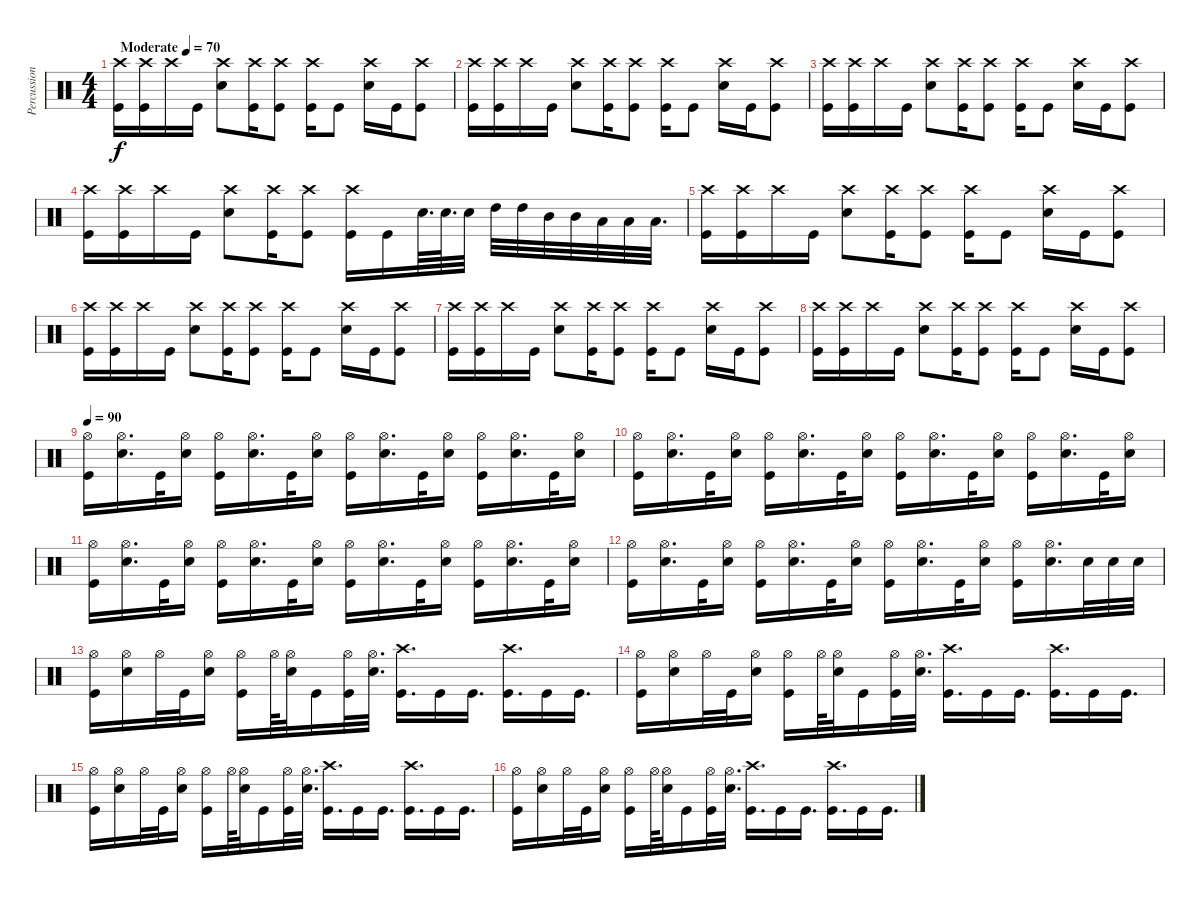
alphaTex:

\track ("Percussion" "Percussion") {instrument percussion}
\staff {score}
\articulation defaults
\ts (4 4)
\tempo (70 "Moderate")
\clef neutral
\ks c
("Crash high (hit)" "Kick (hit)").16{dy f} ("Crash high (hit)" "Kick (hit)").16 "Crash high (hit)".16 "Kick (hit)".16 ("Crash high (hit)" "Electric Snare (hit)").8 ("Crash high (hit)" "Kick (hit)").16 ("Crash high (hit)" "Kick (hit)").8 ("Crash high (hit)" "Kick (hit)").16 "Kick (hit)".8 ("Crash high (hit)" "Electric Snare (hit)").16 "Kick (hit)".16 ("Crash high (hit)" "Kick (hit)").8 |
("Crash high (hit)" "Kick (hit)").16 ("Crash high (hit)" "Kick (hit)").16 "Crash high (hit)".16 "Kick (hit)".16 ("Crash high (hit)" "Electric Snare (hit)").8 ("Crash high (hit)" "Kick (hit)").16 ("Crash high (hit)" "Kick (hit)").8 ("Crash high (hit)" "Kick (hit)").16 "Kick (hit)".8 ("Crash high (hit)" "Electric Snare (hit)").16 "Kick (hit)".16 ("Crash high (hit)" "Kick (hit)").8 |
("Crash high (hit)" "Kick (hit)").16 ("Crash high (hit)" "Kick (hit)").16 "Crash high (hit)".16 "Kick (hit)".16 ("Crash high (hit)" "Electric Snare (hit)").8 ("Crash high (hit)" "Kick (hit)").16 ("Crash high (hit)" "Kick (hit)").8 ("Crash high (hit)" "Kick (hit)").16 "Kick (hit)".8 ("Crash high (hit)" "Electric Snare (hit)").16 "Kick (hit)".16 ("Crash high (hit)" "Kick (hit)").8 |
("Crash high (hit)" "Kick (hit)").16 ("Crash high (hit)" "Kick (hit)").16 "Crash high (hit)".16 "Kick (hit)".16 ("Crash high (hit)" "Electric Snare (hit)").8 ("Crash high (hit)" "Kick (hit)").16 ("Crash high (hit)" "Kick (hit)").8 ("Crash high (hit)" "Kick (hit)").16 "Kick (hit)".16 "Electric Snare (hit)".64{d} "Electric Snare (hit)".64{d} "Electric Snare (hit)".32 "High Tom (hit)".32 "High Tom (hit)".32 "Mid Tom (hit)".32 "Mid Tom (hit)".32 "Low Tom (hit)".32 "Low Tom (hit)".32 "Low Tom (hit)".32{d} |
("Crash high (hit)" "Kick (hit)").16 ("Crash high (hit)" "Kick (hit)").16 "Crash high (hit)".16 "Kick (hit)".16 ("Crash high (hit)" "Electric Snare (hit)").8 ("Crash high (hit)" "Kick (hit)").16 ("Crash high (hit)" "Kick (hit)").8 ("Crash high (hit)" "Kick (hit)").16 "Kick (hit)".8 ("Crash high (hit)" "Electric Snare (hit)").16 "Kick (hit)".16 ("Crash high (hit)" "Kick (hit)").8 |
("Crash high (hit)" "Kick (hit)").16 ("Crash high (hit)" "Kick (hit)").16 "Crash high (hit)".16 "Kick (hit)".16 ("Crash high (hit)" "Electric Snare (hit)").8 ("Crash high (hit)" "Kick (hit)").16 ("Crash high (hit)" "Kick (hit)").8 ("Crash high (hit)" "Kick (hit)").16 "Kick (hit)".8 ("Crash high (hit)" "Electric Snare (hit)").16 "Kick (hit)".16 ("Crash high (hit)" "Kick (hit)").8 |
("Crash high (hit)" "Kick (hit)").16 ("Crash high (hit)" "Kick (hit)").16 "Crash high (hit)".16 "Kick (hit)".16 ("Crash high (hit)" "Electric Snare (hit)").8 ("Crash high (hit)" "Kick (hit)").16 ("Crash high (hit)" "Kick (hit)").8 ("Crash high (hit)" "Kick (hit)").16 "Kick (hit)".8 ("Crash high (hit)" "Electric Snare (hit)").16 "Kick (hit)".16 ("Crash high (hit)" "Kick (hit)").8 |
("Crash high (hit)" "Kick (hit)").16 ("Crash high (hit)" "Kick (hit)").16 "Crash high (hit)".16 "Kick (hit)".16 ("Crash high (hit)" "Electric Snare (hit)").8 ("Crash high (hit)" "Kick (hit)").16 ("Crash high (hit)" "Kick (hit)").8 ("Crash high (hit)" "Kick (hit)").16 "Kick (hit)".8 ("Crash high (hit)" "Electric Snare (hit)").16 "Kick (hit)".16 ("Crash high (hit)" "Kick (hit)").8 |
\tempo 90
("Hi-Hat (open)" "Kick (hit)").16 ("Hi-Hat (open)" "Electric Snare (hit)").16{d} "Kick (hit)".32 ("Hi-Hat (open)" "Electric Snare (hit)").16 ("Hi-Hat (open)" "Kick (hit)").16 ("Hi-Hat (open)" "Electric Snare (hit)").16{d} "Kick (hit)".32 ("Hi-Hat (open)" "Electric Snare (hit)").16 ("Hi-Hat (open)" "Kick (hit)").16 ("Hi-Hat (open)" "Electric Snare (hit)").16{d} "Kick (hit)".32 ("Hi-Hat (open)" "Electric Snare (hit)").16 ("Hi-Hat (open)" "Kick (hit)").16 ("Hi-Hat (open)" "Electric Snare (hit)").16{d} "Kick (hit)".32 ("Hi-Hat (open)" "Electric Snare (hit)").16 |
("Hi-Hat (open)" "Kick (hit)").16 ("Hi-Hat (open)" "Electric Snare (hit)").16{d} "Kick (hit)".32 ("Hi-Hat (open)" "Electric Snare (hit)").16 ("Hi-Hat (open)" "Kick (hit)").16 ("Hi-Hat (open)" "Electric Snare (hit)").16{d} "Kick (hit)".32 ("Hi-Hat (open)" "Electric Snare (hit)").16 ("Hi-Hat (open)" "Kick (hit)").16 ("Hi-Hat (open)" "Electric Snare (hit)").16{d} "Kick (hit)".32 ("Hi-Hat (open)" "Electric Snare (hit)").16 ("Hi-Hat (open)" "Kick (hit)").16 ("Hi-Hat (open)" "Electric Snare (hit)").16{d} "Kick (hit)".32 ("Hi-Hat (open)" "Electric Snare (hit)").16 |
("Hi-Hat (open)" "Kick (hit)").16 ("Hi-Hat (open)" "Electric Snare (hit)").16{d} "Kick (hit)".32 ("Hi-Hat (open)" "Electric Snare (hit)").16 ("Hi-Hat (open)" "Kick (hit)").16 ("Hi-Hat (open)" "Electric Snare (hit)").16{d} "Kick (hit)".32 ("Hi-Hat (open)" "Electric Snare (hit)").16 ("Hi-Hat (open)" "Kick (hit)").16 ("Hi-Hat (open)" "Electric Snare (hit)").16{d} "Kick (hit)".32 ("Hi-Hat (open)" "Electric Snare (hit)").16 ("Hi-Hat (open)" "Kick (hit)").16 ("Hi-Hat (open)" "Electric Snare (hit)").16{d} "Kick (hit)".32 ("Hi-Hat (open)" "Electric Snare (hit)").16 |
("Hi-Hat (open)" "Kick (hit)").16 ("Hi-Hat (open)" "Electric Snare (hit)").16{d} "Kick (hit)".32 ("Hi-Hat (open)" "Electric Snare (hit)").16 ("Hi-Hat (open)" "Kick (hit)").16 ("Hi-Hat (open)" "Electric Snare (hit)").16{d} "Kick (hit)".32 ("Hi-Hat (open)" "Electric Snare (hit)").16 ("Hi-Hat (open)" "Kick (hit)").16 ("Hi-Hat (open)" "Electric Snare (hit)").16{d} "Kick (hit)".32 ("Hi-Hat (open)" "Electric Snare (hit)").16 ("Hi-Hat (open)" "Kick (hit)").16 ("Hi-Hat (open)" "Electric Snare (hit)").16{d} "Electric Snare (hit)".32 "Electric Snare (hit)".32 "Electric Snare (hit)".32 |
("Hi-Hat (open)" "Kick (hit)").16 ("Hi-Hat (open)" "Electric Snare (hit)").16 "Hi-Hat (open)".32 "Kick (hit)".32 ("Hi-Hat (open)" "Electric Snare (hit)").16 ("Hi-Hat (open)" "Kick (hit)").16 "Hi-Hat (open)".64 ("Hi-Hat (open)" "Electric Snare (hit)").32 "Kick (hit)".16 ("Hi-Hat (open)" "Kick (hit)").32 ("Hi-Hat (open)" "Electric Snare (hit)").32{d} ("Crash high (hit)" "Kick (hit)").16{d} "Kick (hit)".16 "Kick (hit)".16{d} ("Crash high (hit)" "Kick (hit)").16{d} "Kick (hit)".16 "Kick (hit)".16{d} |
("Hi-Hat (open)" "Kick (hit)").16 ("Hi-Hat (open)" "Electric Snare (hit)").16 "Hi-Hat (open)".32 "Kick (hit)".32 ("Hi-Hat (open)" "Electric Snare (hit)").16 ("Hi-Hat (open)" "Kick (hit)").16 "Hi-Hat (open)".64 ("Hi-Hat (open)" "Electric Snare (hit)").32 "Kick (hit)".16 ("Hi-Hat (open)" "Kick (hit)").32 ("Hi-Hat (open)" "Electric Snare (hit)").32{d} ("Crash high (hit)" "Kick (hit)").16{d} "Kick (hit)".16 "Kick (hit)".16{d} ("Crash high (hit)" "Kick (hit)").16{d} "Kick (hit)".16 "Kick (hit)".16{d} |
("Hi-Hat (open)" "Kick (hit)").16 ("Hi-Hat (open)" "Electric Snare (hit)").16 "Hi-Hat (open)".32 "Kick (hit)".32 ("Hi-Hat (open)" "Electric Snare (hit)").16 ("Hi-Hat (open)" "Kick (hit)").16 "Hi-Hat (open)".64 ("Hi-Hat (open)" "Electric Snare (hit)").32 "Kick (hit)".16 ("Hi-Hat (open)" "Kick (hit)").32 ("Hi-Hat (open)" "Electric Snare (hit)").32{d} ("Crash high (hit)" "Kick (hit)").16{d} "Kick (hit)".16 "Kick (hit)".16{d} ("Crash high (hit)" "Kick (hit)").16{d} "Kick (hit)".16 "Kick (hit)".16{d} |
("Hi-Hat (open)" "Kick (hit)").16 ("Hi-Hat (open)" "Electric Snare (hit)").16 "Hi-Hat (open)".32 "Kick (hit)".32 ("Hi-Hat (open)" "Electric Snare (hit)").16 ("Hi-Hat (open)" "Kick (hit)").16 "Hi-Hat (open)".64 ("Hi-Hat (open)" "Electric Snare (hit)").32 "Kick (hit)".16 ("Hi-Hat (open)" "Kick (hit)").32 ("Hi-Hat (open)" "Electric Snare (hit)").32{d} ("Crash high (hit)" "Kick (hit)").16{d} "Kick (hit)".16 "Kick (hit)".16{d} ("Crash high (hit)" "Kick (hit)").16{d} "Kick (hit)".16 "Kick (hit)".16{d}
